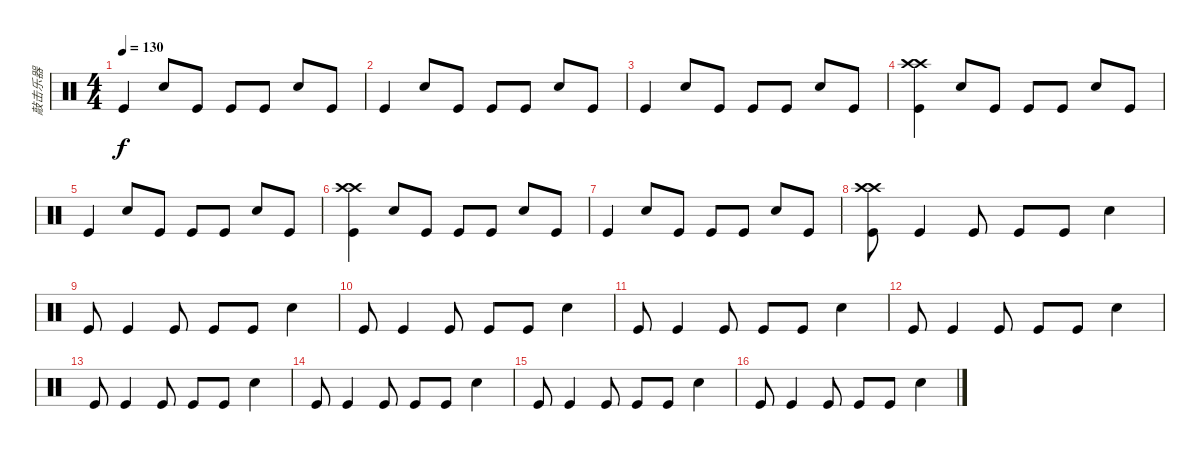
\track ("敲击乐器" "敲击乐器") {instrument percussion}
\staff {score}
\articulation defaults
\ts (4 4)
\tempo 130
\clef neutral
\ks c "Kick (hit)".4{dy f} "Snare (hit) 2".8 "Kick (hit)".8 "Kick (hit)".8 "Kick (hit)".8 "Snare (hit) 2".8 "Kick (hit)".8
|
"Kick (hit)".4 "Snare (hit) 2".8 "Kick (hit)".8 "Kick (hit)".8 "Kick (hit)".8 "Snare (hit) 2".8 "Kick (hit)".8 |
"Kick (hit)".4 "Snare (hit) 2".8 "Kick (hit)".8 "Kick (hit)".8 "Kick (hit)".8 "Snare (hit) 2".8 "Kick (hit)".8 |
("Crash high (hit)" "Crash high (hit)" "Kick (hit)").4 "Snare (hit) 2".8 "Kick (hit)".8 "Kick (hit)".8 "Kick (hit)".8 "Snare (hit) 2".8 "Kick (hit)".8 |
"Kick (hit)".4 "Snare (hit) 2".8 "Kick (hit)".8 "Kick (hit)".8 "Kick (hit)".8 "Snare (hit) 2".8 "Kick (hit)".8 |
("Crash high (hit)" "Crash high (hit)" "Kick (hit)").4 "Snare (hit) 2".8 "Kick (hit)".8 "Kick (hit)".8 "Kick (hit)".8 "Snare (hit) 2".8 "Kick (hit)".8 |
"Kick (hit)".4 "Snare (hit) 2".8 "Kick (hit)".8 "Kick (hit)".8 "Kick (hit)".8 "Snare (hit) 2".8 "Kick (hit)".8 |
("Crash high (hit)" "Crash high (hit)" "Kick (hit)").8 "Kick (hit)".4 "Kick (hit)".8 "Kick (hit)".8 "Kick (hit)".8 "Snare (hit) 2".4 |
"Kick (hit)".8 "Kick (hit)".4 "Kick (hit)".8 "Kick (hit)".8 "Kick (hit)".8 "Snare (hit) 2".4 |
"Kick (hit)".8 "Kick (hit)".4 "Kick (hit)".8 "Kick (hit)".8 "Kick (hit)".8 "Snare (hit) 2".4 |
"Kick (hit)".8 "Kick (hit)".4 "Kick (hit)".8 "Kick (hit)".8 "Kick (hit)".8 "Snare (hit) 2".4 |
"Kick (hit)".8 "Kick (hit)".4 "Kick (hit)".8 "Kick (hit)".8 "Kick (hit)".8 "Snare (hit) 2".4 |
"Kick (hit)".8 "Kick (hit)".4 "Kick (hit)".8 "Kick (hit)".8 "Kick (hit)".8 "Snare (hit) 2".4 |
"Kick (hit)".8 "Kick (hit)".4 "Kick (hit)".8 "Kick (hit)".8 "Kick (hit)".8 "Snare (hit) 2".4 |
"Kick (hit)".8 "Kick (hit)".4 "Kick (hit)".8 "Kick (hit)".8 "Kick (hit)".8 "Snare (hit) 2".4 |
"Kick (hit)".8 "Kick (hit)".4 "Kick (hit)".8 "Kick (hit)".8 "Kick (hit)".8 "Snare (hit) 2".4
